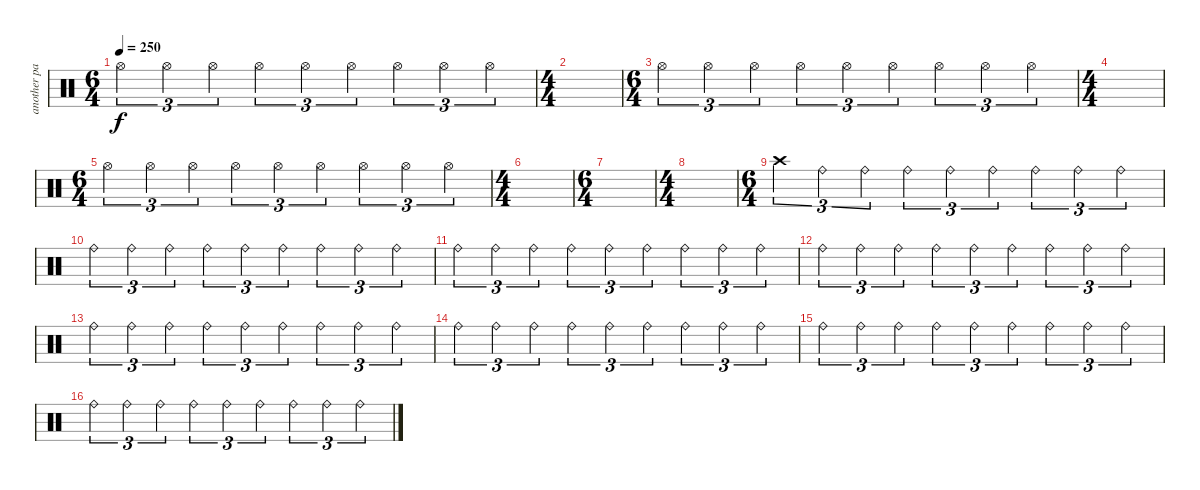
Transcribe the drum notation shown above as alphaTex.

\track ("another part of metti" "another pa") {instrument percussion}
\staff {score}
\articulation defaults
\ts (6 4)
\tempo 250
\clef neutral
\ks c "Hi-Hat (open)".4{tu (3 2) dy f} "Hi-Hat (open)".4{tu (3 2)} "Hi-Hat (open)".4{tu (3 2)} "Hi-Hat (open)".4{tu (3 2)} "Hi-Hat (open)".4{tu (3 2)} "Hi-Hat (open)".4{tu (3 2)} "Hi-Hat (open)".4{tu (3 2)} "Hi-Hat (open)".4{tu (3 2)} "Hi-Hat (open)".4{tu (3 2)}
|
\ts (4 4)
|
\ts (6 4)
"Hi-Hat (open)".4{tu (3 2)} "Hi-Hat (open)".4{tu (3 2)} "Hi-Hat (open)".4{tu (3 2)} "Hi-Hat (open)".4{tu (3 2)} "Hi-Hat (open)".4{tu (3 2)} "Hi-Hat (open)".4{tu (3 2)} "Hi-Hat (open)".4{tu (3 2)} "Hi-Hat (open)".4{tu (3 2)} "Hi-Hat (open)".4{tu (3 2)} |
\ts (4 4)
|
\ts (6 4)
"Hi-Hat (open)".4{tu (3 2)} "Hi-Hat (open)".4{tu (3 2)} "Hi-Hat (open)".4{tu (3 2)} "Hi-Hat (open)".4{tu (3 2)} "Hi-Hat (open)".4{tu (3 2)} "Hi-Hat (open)".4{tu (3 2)} "Hi-Hat (open)".4{tu (3 2)} "Hi-Hat (open)".4{tu (3 2)} "Hi-Hat (open)".4{tu (3 2)} |
\ts (4 4)
|
\ts (6 4)
|
\ts (4 4)
|
\ts (6 4)
"Crash high (hit)".4{tu (3 2)} "Ride (bell)".4{tu (3 2)} "Ride (bell)".4{tu (3 2)} "Ride (bell)".4{tu (3 2)} "Ride (bell)".4{tu (3 2)} "Ride (bell)".4{tu (3 2)} "Ride (bell)".4{tu (3 2)} "Ride (bell)".4{tu (3 2)} "Ride (bell)".4{tu (3 2)} |
"Ride (bell)".4{tu (3 2)} "Ride (bell)".4{tu (3 2)} "Ride (bell)".4{tu (3 2)} "Ride (bell)".4{tu (3 2)} "Ride (bell)".4{tu (3 2)} "Ride (bell)".4{tu (3 2)} "Ride (bell)".4{tu (3 2)} "Ride (bell)".4{tu (3 2)} "Ride (bell)".4{tu (3 2)} |
"Ride (bell)".4{tu (3 2)} "Ride (bell)".4{tu (3 2)} "Ride (bell)".4{tu (3 2)} "Ride (bell)".4{tu (3 2)} "Ride (bell)".4{tu (3 2)} "Ride (bell)".4{tu (3 2)} "Ride (bell)".4{tu (3 2)} "Ride (bell)".4{tu (3 2)} "Ride (bell)".4{tu (3 2)} |
"Ride (bell)".4{tu (3 2)} "Ride (bell)".4{tu (3 2)} "Ride (bell)".4{tu (3 2)} "Ride (bell)".4{tu (3 2)} "Ride (bell)".4{tu (3 2)} "Ride (bell)".4{tu (3 2)} "Ride (bell)".4{tu (3 2)} "Ride (bell)".4{tu (3 2)} "Ride (bell)".4{tu (3 2)} |
"Ride (bell)".4{tu (3 2)} "Ride (bell)".4{tu (3 2)} "Ride (bell)".4{tu (3 2)} "Ride (bell)".4{tu (3 2)} "Ride (bell)".4{tu (3 2)} "Ride (bell)".4{tu (3 2)} "Ride (bell)".4{tu (3 2)} "Ride (bell)".4{tu (3 2)} "Ride (bell)".4{tu (3 2)} |
"Ride (bell)".4{tu (3 2)} "Ride (bell)".4{tu (3 2)} "Ride (bell)".4{tu (3 2)} "Ride (bell)".4{tu (3 2)} "Ride (bell)".4{tu (3 2)} "Ride (bell)".4{tu (3 2)} "Ride (bell)".4{tu (3 2)} "Ride (bell)".4{tu (3 2)} "Ride (bell)".4{tu (3 2)} |
"Ride (bell)".4{tu (3 2)} "Ride (bell)".4{tu (3 2)} "Ride (bell)".4{tu (3 2)} "Ride (bell)".4{tu (3 2)} "Ride (bell)".4{tu (3 2)} "Ride (bell)".4{tu (3 2)} "Ride (bell)".4{tu (3 2)} "Ride (bell)".4{tu (3 2)} "Ride (bell)".4{tu (3 2)} |
"Ride (bell)".4{tu (3 2)} "Ride (bell)".4{tu (3 2)} "Ride (bell)".4{tu (3 2)} "Ride (bell)".4{tu (3 2)} "Ride (bell)".4{tu (3 2)} "Ride (bell)".4{tu (3 2)} "Ride (bell)".4{tu (3 2)} "Ride (bell)".4{tu (3 2)} "Ride (bell)".4{tu (3 2)}
